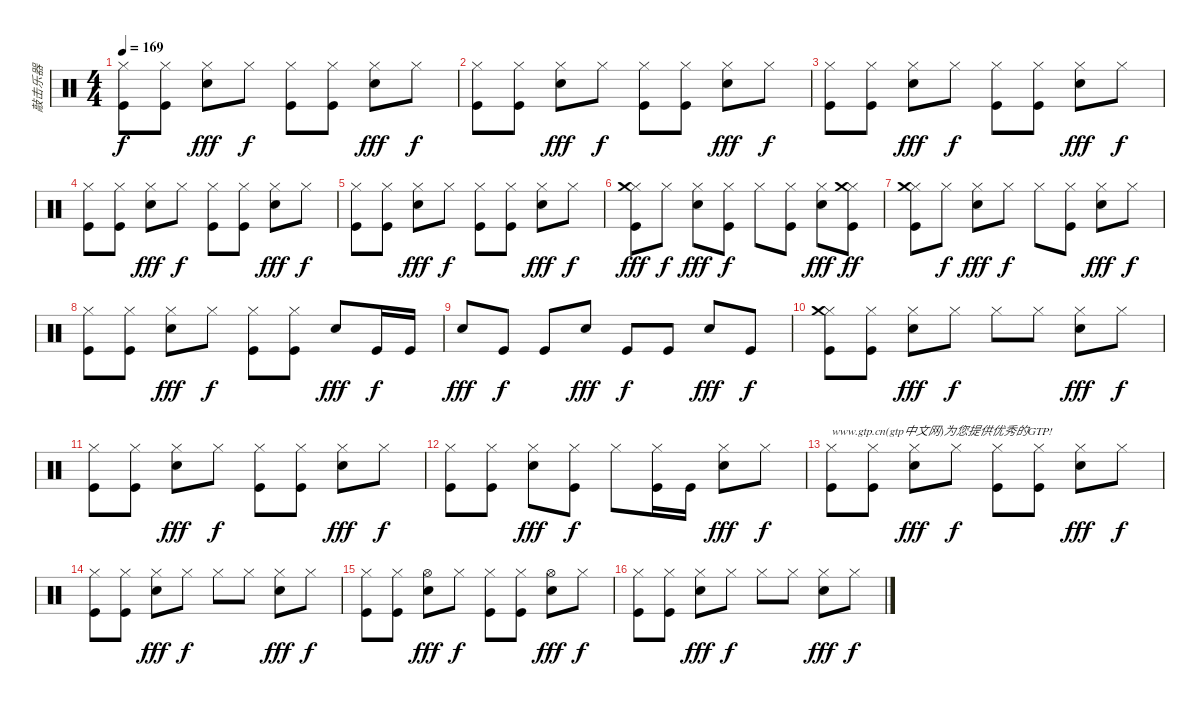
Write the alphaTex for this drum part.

\track ("敲击乐器" "敲击乐器") {instrument percussion}
\staff {score}
\articulation defaults
\ts (4 4)
\tempo 169
\clef neutral
\ks c
("Hi-Hat (closed)" "Kick (hit)").8{dy f} ("Hi-Hat (closed)" "Kick (hit)").8 ("Hi-Hat (closed)" "Electric Snare (hit)").8{dy fff} "Hi-Hat (closed)".8{dy f} ("Hi-Hat (closed)" "Kick (hit)").8 ("Hi-Hat (closed)" "Kick (hit)").8 ("Hi-Hat (closed)" "Electric Snare (hit)").8{dy fff} "Hi-Hat (closed)".8{dy f} |
("Hi-Hat (closed)" "Kick (hit)").8 ("Hi-Hat (closed)" "Kick (hit)").8 ("Hi-Hat (closed)" "Electric Snare (hit)").8{dy fff} "Hi-Hat (closed)".8{dy f} ("Hi-Hat (closed)" "Kick (hit)").8 ("Hi-Hat (closed)" "Kick (hit)").8 ("Hi-Hat (closed)" "Electric Snare (hit)").8{dy fff} "Hi-Hat (closed)".8{dy f} |
("Hi-Hat (closed)" "Kick (hit)").8 ("Hi-Hat (closed)" "Kick (hit)").8 ("Hi-Hat (closed)" "Electric Snare (hit)").8{dy fff} "Hi-Hat (closed)".8{dy f} ("Hi-Hat (closed)" "Kick (hit)").8 ("Hi-Hat (closed)" "Kick (hit)").8 ("Hi-Hat (closed)" "Electric Snare (hit)").8{dy fff} "Hi-Hat (closed)".8{dy f} |
("Hi-Hat (closed)" "Kick (hit)").8 ("Hi-Hat (closed)" "Kick (hit)").8 ("Hi-Hat (closed)" "Electric Snare (hit)").8{dy fff} "Hi-Hat (closed)".8{dy f} ("Hi-Hat (closed)" "Kick (hit)").8 ("Hi-Hat (closed)" "Kick (hit)").8 ("Hi-Hat (closed)" "Electric Snare (hit)").8{dy fff} "Hi-Hat (closed)".8{dy f} |
("Hi-Hat (closed)" "Kick (hit)").8 ("Hi-Hat (closed)" "Kick (hit)").8 ("Hi-Hat (closed)" "Electric Snare (hit)").8{dy fff} "Hi-Hat (closed)".8{dy f} ("Hi-Hat (closed)" "Kick (hit)").8 ("Hi-Hat (closed)" "Kick (hit)").8 ("Hi-Hat (closed)" "Electric Snare (hit)").8{dy fff} "Hi-Hat (closed)".8{dy f} |
("Hi-Hat (closed)" "Crash medium (hit)" "Kick (hit)").8{dy fff} "Hi-Hat (closed)".8{dy f} ("Hi-Hat (closed)" "Electric Snare (hit)").8{dy fff} ("Hi-Hat (closed)" "Kick (hit)").8{dy f} "Hi-Hat (closed)".8 ("Hi-Hat (closed)" "Kick (hit)").8 ("Hi-Hat (closed)" "Electric Snare (hit)").8{dy fff} ("Hi-Hat (closed)" "Crash medium (hit)" "Kick (hit)").8{dy ff} |
("Hi-Hat (closed)" "Crash medium (hit)" "Kick (hit)").8 "Hi-Hat (closed)".8{dy f} ("Hi-Hat (closed)" "Electric Snare (hit)").8{dy fff} "Hi-Hat (closed)".8{dy f} "Hi-Hat (closed)".8 ("Hi-Hat (closed)" "Kick (hit)").8 ("Hi-Hat (closed)" "Electric Snare (hit)").8{dy fff} "Hi-Hat (closed)".8{dy f} |
("Hi-Hat (closed)" "Kick (hit)").8 ("Hi-Hat (closed)" "Kick (hit)").8 ("Hi-Hat (closed)" "Electric Snare (hit)").8{dy fff} "Hi-Hat (closed)".8{dy f} ("Hi-Hat (closed)" "Kick (hit)").8 ("Hi-Hat (closed)" "Kick (hit)").8 "Electric Snare (hit)".8{dy fff} "Kick (hit)".16{dy f} "Kick (hit)".16 |
"Electric Snare (hit)".8{dy fff} "Kick (hit)".8{dy f} "Kick (hit)".8 "Electric Snare (hit)".8{dy fff} "Kick (hit)".8{dy f} "Kick (hit)".8 "Electric Snare (hit)".8{dy fff} "Kick (hit)".8{dy f} |
("Hi-Hat (closed)" "Crash medium (hit)" "Kick (hit)").8 ("Hi-Hat (closed)" "Kick (hit)").8 ("Hi-Hat (closed)" "Electric Snare (hit)").8{dy fff} "Hi-Hat (closed)".8{dy f} "Hi-Hat (closed)".8 "Hi-Hat (closed)".8 ("Hi-Hat (closed)" "Electric Snare (hit)").8{dy fff} "Hi-Hat (closed)".8{dy f} |
("Hi-Hat (closed)" "Kick (hit)").8 ("Hi-Hat (closed)" "Kick (hit)").8 ("Hi-Hat (closed)" "Electric Snare (hit)").8{dy fff} "Hi-Hat (closed)".8{dy f} ("Hi-Hat (closed)" "Kick (hit)").8 ("Hi-Hat (closed)" "Kick (hit)").8 ("Hi-Hat (closed)" "Electric Snare (hit)").8{dy fff} "Hi-Hat (closed)".8{dy f} |
("Hi-Hat (closed)" "Kick (hit)").8 ("Hi-Hat (closed)" "Kick (hit)").8 ("Hi-Hat (closed)" "Electric Snare (hit)").8{dy fff} ("Hi-Hat (closed)" "Kick (hit)").8{dy f} "Hi-Hat (closed)".8 ("Hi-Hat (closed)" "Kick (hit)").16 "Kick (hit)".16 ("Hi-Hat (closed)" "Electric Snare (hit)").8{dy fff} "Hi-Hat (closed)".8{dy f} |
("Hi-Hat (closed)" "Kick (hit)").8{txt "www.gtp.cn(gtp中文网)为您提供优秀的GTP!"} ("Hi-Hat (closed)" "Kick (hit)").8 ("Hi-Hat (closed)" "Electric Snare (hit)").8{dy fff} "Hi-Hat (closed)".8{dy f} ("Hi-Hat (closed)" "Kick (hit)").8 ("Hi-Hat (closed)" "Kick (hit)").8 ("Hi-Hat (closed)" "Electric Snare (hit)").8{dy fff} "Hi-Hat (closed)".8{dy f} |
("Hi-Hat (closed)" "Kick (hit)").8 ("Hi-Hat (closed)" "Kick (hit)").8 ("Hi-Hat (closed)" "Electric Snare (hit)").8{dy fff} "Hi-Hat (closed)".8{dy f} "Hi-Hat (closed)".8 "Hi-Hat (closed)".8 ("Hi-Hat (closed)" "Electric Snare (hit)").8{dy fff} "Hi-Hat (closed)".8{dy f} |
("Hi-Hat (closed)" "Kick (hit)").8 ("Hi-Hat (closed)" "Kick (hit)").8 ("Hi-Hat (open)" "Electric Snare (hit)").8{dy fff} "Hi-Hat (closed)".8{dy f} ("Hi-Hat (closed)" "Kick (hit)").8 ("Hi-Hat (closed)" "Kick (hit)").8 ("Hi-Hat (open)" "Electric Snare (hit)").8{dy fff} "Hi-Hat (closed)".8{dy f} |
("Hi-Hat (closed)" "Kick (hit)").8 ("Hi-Hat (closed)" "Kick (hit)").8 ("Hi-Hat (closed)" "Electric Snare (hit)").8{dy fff} "Hi-Hat (closed)".8{dy f} "Hi-Hat (closed)".8 "Hi-Hat (closed)".8 ("Hi-Hat (closed)" "Electric Snare (hit)").8{dy fff} "Hi-Hat (closed)".8{dy f}
